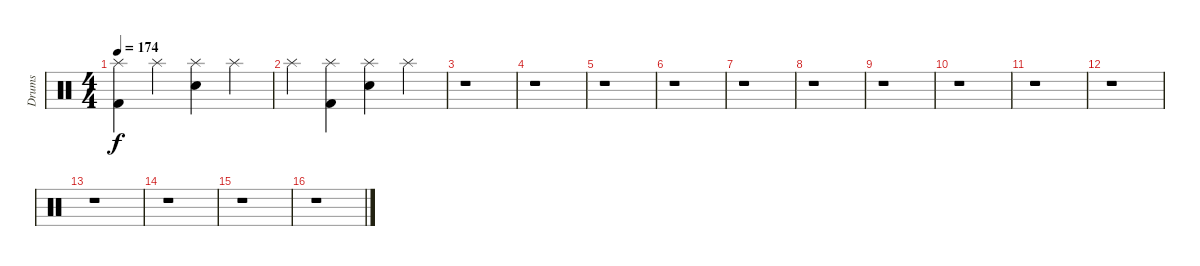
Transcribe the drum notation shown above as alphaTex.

\track ("Drums" "Drums") {instrument percussion}
\staff {score}
\articulation defaults
\ts (4 4)
\tempo 174
\clef neutral
\ks c
("Splash (hit)" "Kick (hit) 2").4{dy f} "Splash (hit)".4 ("Splash (hit)" "Snare (hit) 2").4 "Splash (hit)".4 |
"Splash (hit)".4 ("Splash (hit)" "Kick (hit) 2").4 ("Splash (hit)" "Snare (hit) 2").4 "Splash (hit)".4 |
r.1 |
r.1 |
r.1 |
r.1 |
r.1 |
r.1 |
r.1 |
r.1 |
r.1 |
r.1 |
r.1 |
r.1 |
r.1 |
r.1
